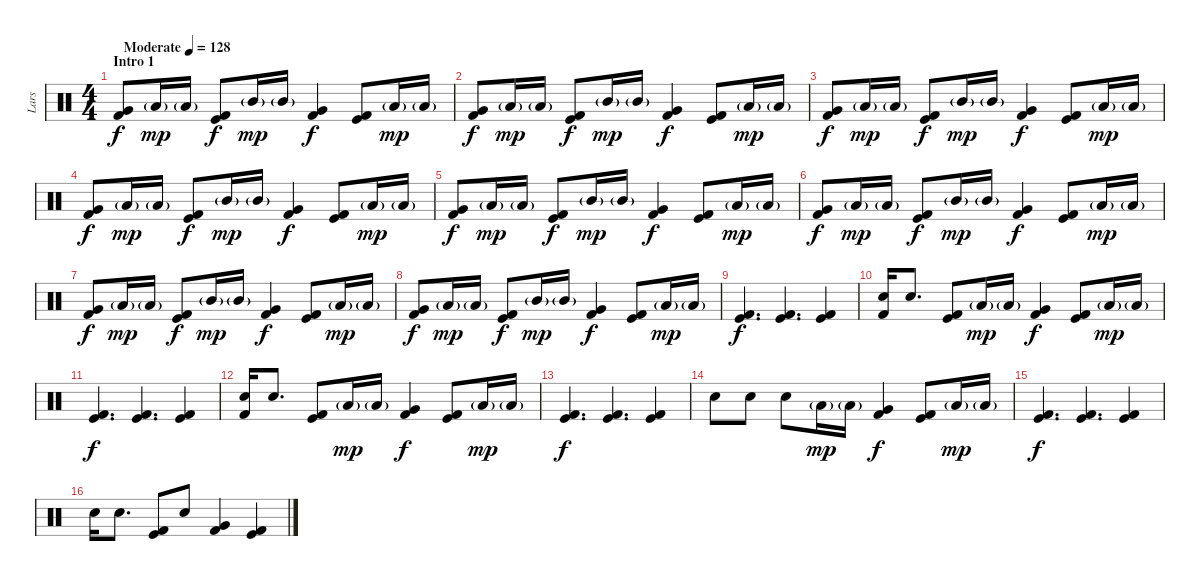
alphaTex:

\track ("Lars" "Lars") {instrument percussion}
\staff {score}
\articulation defaults
\ts (4 4)
\section ("" "Intro 1")
\tempo (128 "Moderate")
\clef neutral
\ks c
("Kick (hit) 2" "Very Low Tom (hit)").8{dy f} "Low Tom (hit)"{g}.16{dy mp} "Low Tom (hit)"{g}.16 ("Kick (hit)" "Kick (hit) 2").8{dy f} "Mid Tom (hit)"{g}.16{dy mp} "Mid Tom (hit)"{g}.16 ("Kick (hit) 2" "Very Low Tom (hit)").4{dy f} ("Kick (hit)" "Kick (hit) 2").8 "Low Tom (hit)"{g}.16{dy mp} "Low Tom (hit)"{g}.16 |
("Kick (hit) 2" "Very Low Tom (hit)").8{dy f} "Low Tom (hit)"{g}.16{dy mp} "Low Tom (hit)"{g}.16 ("Kick (hit)" "Kick (hit) 2").8{dy f} "Mid Tom (hit)"{g}.16{dy mp} "Mid Tom (hit)"{g}.16 ("Kick (hit) 2" "Very Low Tom (hit)").4{dy f} ("Kick (hit)" "Kick (hit) 2").8 "Low Tom (hit)"{g}.16{dy mp} "Low Tom (hit)"{g}.16 |
("Kick (hit) 2" "Very Low Tom (hit)").8{dy f} "Low Tom (hit)"{g}.16{dy mp} "Low Tom (hit)"{g}.16 ("Kick (hit)" "Kick (hit) 2").8{dy f} "Mid Tom (hit)"{g}.16{dy mp} "Mid Tom (hit)"{g}.16 ("Kick (hit) 2" "Very Low Tom (hit)").4{dy f} ("Kick (hit)" "Kick (hit) 2").8 "Low Tom (hit)"{g}.16{dy mp} "Low Tom (hit)"{g}.16 |
("Kick (hit) 2" "Very Low Tom (hit)").8{dy f} "Low Tom (hit)"{g}.16{dy mp} "Low Tom (hit)"{g}.16 ("Kick (hit)" "Kick (hit) 2").8{dy f} "Mid Tom (hit)"{g}.16{dy mp} "Mid Tom (hit)"{g}.16 ("Kick (hit) 2" "Very Low Tom (hit)").4{dy f} ("Kick (hit)" "Kick (hit) 2").8 "Low Tom (hit)"{g}.16{dy mp} "Low Tom (hit)"{g}.16 |
("Kick (hit) 2" "Very Low Tom (hit)").8{dy f} "Low Tom (hit)"{g}.16{dy mp} "Low Tom (hit)"{g}.16 ("Kick (hit)" "Kick (hit) 2").8{dy f} "Mid Tom (hit)"{g}.16{dy mp} "Mid Tom (hit)"{g}.16 ("Kick (hit) 2" "Very Low Tom (hit)").4{dy f} ("Kick (hit)" "Kick (hit) 2").8 "Low Tom (hit)"{g}.16{dy mp} "Low Tom (hit)"{g}.16 |
("Kick (hit) 2" "Very Low Tom (hit)").8{dy f} "Low Tom (hit)"{g}.16{dy mp} "Low Tom (hit)"{g}.16 ("Kick (hit)" "Kick (hit) 2").8{dy f} "Mid Tom (hit)"{g}.16{dy mp} "Mid Tom (hit)"{g}.16 ("Kick (hit) 2" "Very Low Tom (hit)").4{dy f} ("Kick (hit)" "Kick (hit) 2").8 "Low Tom (hit)"{g}.16{dy mp} "Low Tom (hit)"{g}.16 |
("Kick (hit) 2" "Very Low Tom (hit)").8{dy f} "Low Tom (hit)"{g}.16{dy mp} "Low Tom (hit)"{g}.16 ("Kick (hit)" "Kick (hit) 2").8{dy f} "Mid Tom (hit)"{g}.16{dy mp} "Mid Tom (hit)"{g}.16 ("Kick (hit) 2" "Very Low Tom (hit)").4{dy f} ("Kick (hit)" "Kick (hit) 2").8 "Low Tom (hit)"{g}.16{dy mp} "Low Tom (hit)"{g}.16 |
("Kick (hit) 2" "Very Low Tom (hit)").8{dy f} "Low Tom (hit)"{g}.16{dy mp} "Low Tom (hit)"{g}.16 ("Kick (hit)" "Kick (hit) 2").8{dy f} "Mid Tom (hit)"{g}.16{dy mp} "Mid Tom (hit)"{g}.16 ("Kick (hit) 2" "Very Low Tom (hit)").4{dy f} ("Kick (hit)" "Kick (hit) 2").8 "Low Tom (hit)"{g}.16{dy mp} "Low Tom (hit)"{g}.16 |
("Kick (hit)" "Kick (hit) 2").4{d dy f} ("Kick (hit)" "Kick (hit) 2").4{d} ("Kick (hit)" "Kick (hit) 2").4 |
("Electric Snare (hit)" "Kick (hit) 2").16 "Electric Snare (hit)".8{d} ("Kick (hit) 2" "Kick (hit)").8 "Low Tom (hit)"{g}.16{dy mp} "Low Tom (hit)"{g}.16 ("Kick (hit) 2" "Very Low Tom (hit)").4{dy f} ("Kick (hit) 2" "Kick (hit)").8 "Low Tom (hit)"{g}.16{dy mp} "Low Tom (hit)"{g}.16 |
("Kick (hit)" "Kick (hit) 2").4{d dy f} ("Kick (hit)" "Kick (hit) 2").4{d} ("Kick (hit)" "Kick (hit) 2").4 |
("Electric Snare (hit)" "Kick (hit) 2").16 "Electric Snare (hit)".8{d} ("Kick (hit) 2" "Kick (hit)").8 "Low Tom (hit)"{g}.16{dy mp} "Low Tom (hit)"{g}.16 ("Kick (hit) 2" "Very Low Tom (hit)").4{dy f} ("Kick (hit) 2" "Kick (hit)").8 "Low Tom (hit)"{g}.16{dy mp} "Low Tom (hit)"{g}.16 |
("Kick (hit)" "Kick (hit) 2").4{d dy f} ("Kick (hit)" "Kick (hit) 2").4{d} ("Kick (hit)" "Kick (hit) 2").4 |
"Electric Snare (hit)".8 "Electric Snare (hit)".8 "Electric Snare (hit)".8 "Low Tom (hit)"{g}.16{dy mp} "Low Tom (hit)"{g}.16 ("Kick (hit) 2" "Very Low Tom (hit)").4{dy f} ("Kick (hit) 2" "Kick (hit)").8 "Low Tom (hit)"{g}.16{dy mp} "Low Tom (hit)"{g}.16 |
("Kick (hit)" "Kick (hit) 2").4{d dy f} ("Kick (hit)" "Kick (hit) 2").4{d} ("Kick (hit)" "Kick (hit) 2").4 |
"Electric Snare (hit)".16 "Electric Snare (hit)".8{d} ("Kick (hit)" "Kick (hit) 2").8 "Electric Snare (hit)".8 ("Kick (hit) 2" "Very Low Tom (hit)").4 ("Kick (hit) 2" "Kick (hit)").4
